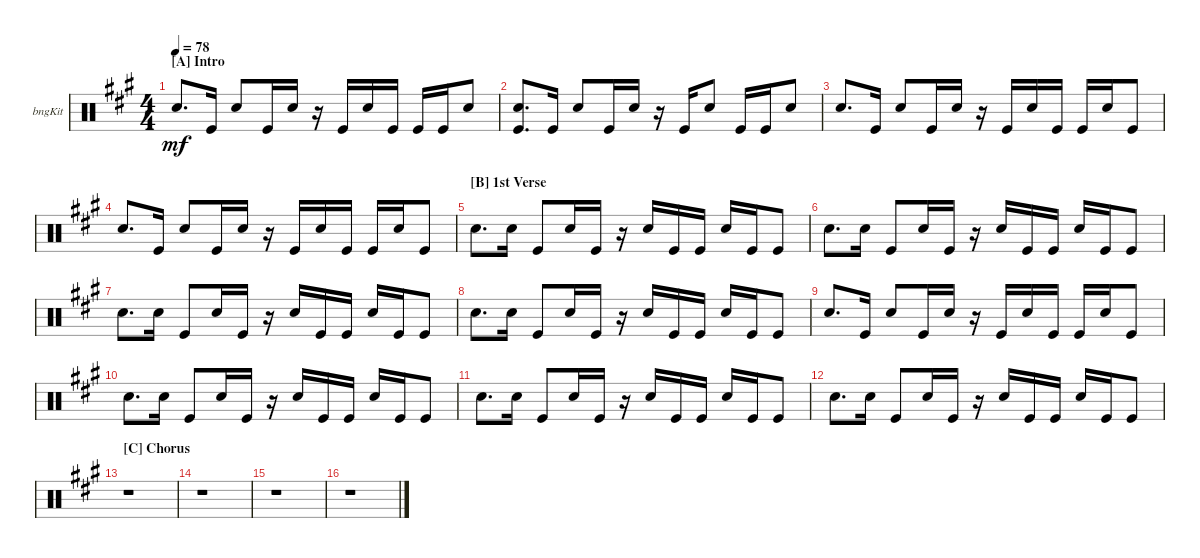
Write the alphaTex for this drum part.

\defaultSystemsLayout 4
\bracketExtendMode groupsimilarinstruments
\firstSystemTrackNameOrientation horizontal
\otherSystemsTrackNameOrientation horizontal
\track ("Bongos" "bngKit") {instrument percussion}
\staff {score}
\articulation defaults
\ts (4 4)
\section ("A" "Intro")
\tempo 78
\clef neutral
\ks a "Snare (hit) 2".8{d dy mf} "Kick (hit)".16 "Snare (hit) 2".8 "Kick (hit)".16 "Snare (hit) 2".16
r.16 "Kick (hit)".16 "Snare (hit) 2".16 "Kick (hit)".16 "Kick (hit)".16 "Kick (hit)".16 "Snare (hit) 2".8 |
("Snare (hit) 2" "Kick (hit)").8{d} "Kick (hit)".16 "Snare (hit) 2".8 "Kick (hit)".16 "Snare (hit) 2".16 r.16 "Kick (hit)".16 "Snare (hit) 2".8 "Kick (hit)".16 "Kick (hit)".16 "Snare (hit) 2".8 |
"Snare (hit) 2".8{d} "Kick (hit)".16 "Snare (hit) 2".8 "Kick (hit)".16 "Snare (hit) 2".16 r.16 "Kick (hit)".16 "Snare (hit) 2".16 "Kick (hit)".16 "Kick (hit)".16 "Snare (hit) 2".16 "Kick (hit)".8 |
"Snare (hit) 2".8{d} "Kick (hit)".16 "Snare (hit) 2".8 "Kick (hit)".16 "Snare (hit) 2".16 r.16 "Kick (hit)".16 "Snare (hit) 2".16 "Kick (hit)".16 "Kick (hit)".16 "Snare (hit) 2".16 "Kick (hit)".8 |
\section ("B" "1st Verse")
"Snare (hit) 2".8{d} "Snare (hit) 2".16 "Kick (hit)".8 "Snare (hit) 2".16 "Kick (hit)".16 r.16 "Snare (hit) 2".16 "Kick (hit)".16 "Kick (hit)".16 "Snare (hit) 2".16 "Kick (hit)".16 "Kick (hit)".8 |
"Snare (hit) 2".8{d} "Snare (hit) 2".16 "Kick (hit)".8 "Snare (hit) 2".16 "Kick (hit)".16 r.16 "Snare (hit) 2".16 "Kick (hit)".16 "Kick (hit)".16 "Snare (hit) 2".16 "Kick (hit)".16 "Kick (hit)".8 |
"Snare (hit) 2".8{d} "Snare (hit) 2".16 "Kick (hit)".8 "Snare (hit) 2".16 "Kick (hit)".16 r.16 "Snare (hit) 2".16 "Kick (hit)".16 "Kick (hit)".16 "Snare (hit) 2".16 "Kick (hit)".16 "Kick (hit)".8 |
"Snare (hit) 2".8{d} "Snare (hit) 2".16 "Kick (hit)".8 "Snare (hit) 2".16 "Kick (hit)".16 r.16 "Snare (hit) 2".16 "Kick (hit)".16 "Kick (hit)".16 "Snare (hit) 2".16 "Kick (hit)".16 "Kick (hit)".8 |
"Snare (hit) 2".8{d} "Kick (hit)".16 "Snare (hit) 2".8 "Kick (hit)".16 "Snare (hit) 2".16 r.16 "Kick (hit)".16 "Snare (hit) 2".16 "Kick (hit)".16 "Kick (hit)".16 "Snare (hit) 2".16 "Kick (hit)".8 |
"Snare (hit) 2".8{d} "Snare (hit) 2".16 "Kick (hit)".8 "Snare (hit) 2".16 "Kick (hit)".16 r.16 "Snare (hit) 2".16 "Kick (hit)".16 "Kick (hit)".16 "Snare (hit) 2".16 "Kick (hit)".16 "Kick (hit)".8 |
"Snare (hit) 2".8{d} "Snare (hit) 2".16 "Kick (hit)".8 "Snare (hit) 2".16 "Kick (hit)".16 r.16 "Snare (hit) 2".16 "Kick (hit)".16 "Kick (hit)".16 "Snare (hit) 2".16 "Kick (hit)".16 "Kick (hit)".8 |
"Snare (hit) 2".8{d} "Snare (hit) 2".16 "Kick (hit)".8 "Snare (hit) 2".16 "Kick (hit)".16 r.16 "Snare (hit) 2".16 "Kick (hit)".16 "Kick (hit)".16 "Snare (hit) 2".16 "Kick (hit)".16 "Kick (hit)".8 |
\section ("C" "Chorus")
r.1 |
r.1 |
r.1 |
r.1
